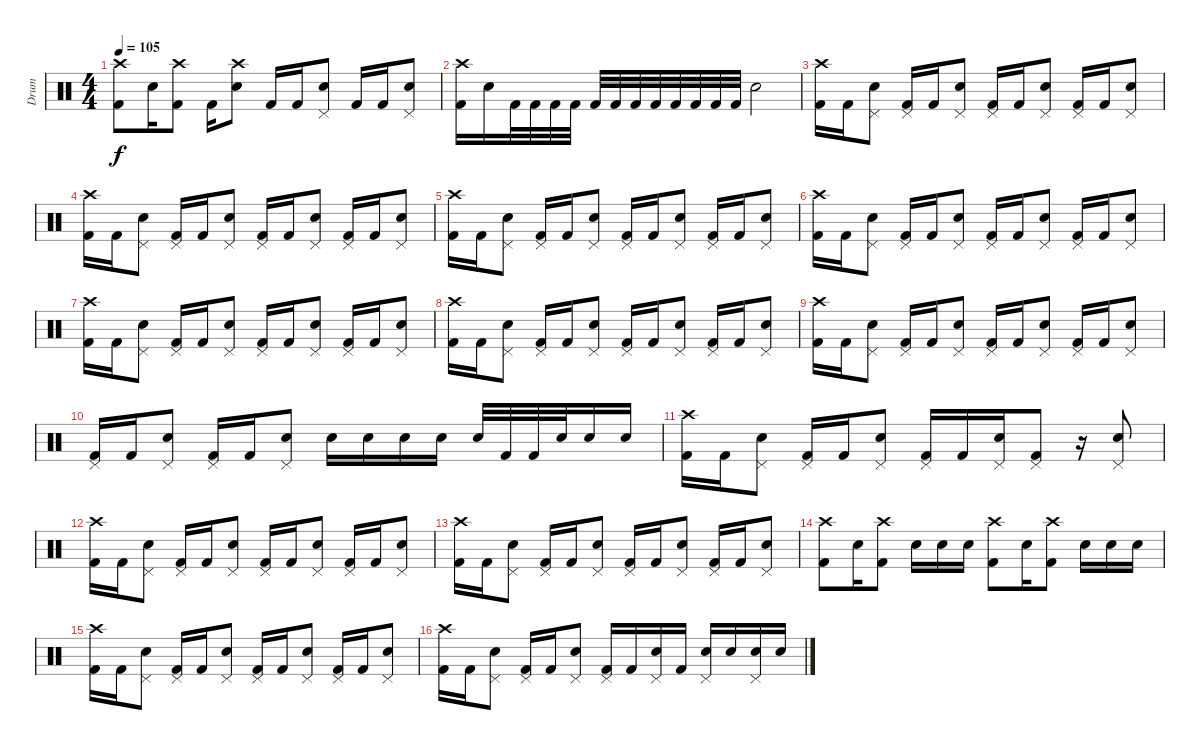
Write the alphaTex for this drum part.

\track ("Drum" "Drum") {instrument percussion}
\staff {score}
\articulation defaults
\ts (4 4)
\tempo 105
\clef neutral
\ks c
("Crash high (hit)" "Kick (hit) 2").8{dy f} "Snare (hit) 2".16 ("Crash high (hit)" "Kick (hit) 2").8 "Kick (hit) 2".16 ("Crash high (hit)" "Snare (hit) 2").8 "Kick (hit) 2".16 "Kick (hit) 2".16 ("Pedal Hi-Hat (hit)" "Snare (hit) 2").8 "Kick (hit) 2".16 "Kick (hit) 2".16 ("Pedal Hi-Hat (hit)" "Snare (hit) 2").8 |
("Crash high (hit)" "Kick (hit) 2").16 "Snare (hit) 2".16 "Kick (hit) 2".32 "Kick (hit) 2".32 "Kick (hit) 2".32 "Kick (hit) 2".32 "Kick (hit) 2".32 "Kick (hit) 2".32 "Kick (hit) 2".32 "Kick (hit) 2".32 "Kick (hit) 2".32 "Kick (hit) 2".32 "Kick (hit) 2".32 "Kick (hit) 2".32 "Snare (hit) 2".2 |
("Crash high (hit)" "Kick (hit) 2").16 "Kick (hit) 2".16 ("Pedal Hi-Hat (hit)" "Snare (hit) 2").8 ("Pedal Hi-Hat (hit)" "Kick (hit) 2").16 "Kick (hit) 2".16 ("Pedal Hi-Hat (hit)" "Snare (hit) 2").8 ("Pedal Hi-Hat (hit)" "Kick (hit) 2").16 "Kick (hit) 2".16 ("Pedal Hi-Hat (hit)" "Snare (hit) 2").8 ("Pedal Hi-Hat (hit)" "Kick (hit) 2").16 "Kick (hit) 2".16 ("Pedal Hi-Hat (hit)" "Snare (hit) 2").8 |
("Crash high (hit)" "Kick (hit) 2").16 "Kick (hit) 2".16 ("Pedal Hi-Hat (hit)" "Snare (hit) 2").8 ("Pedal Hi-Hat (hit)" "Kick (hit) 2").16 "Kick (hit) 2".16 ("Pedal Hi-Hat (hit)" "Snare (hit) 2").8 ("Pedal Hi-Hat (hit)" "Kick (hit) 2").16 "Kick (hit) 2".16 ("Pedal Hi-Hat (hit)" "Snare (hit) 2").8 ("Pedal Hi-Hat (hit)" "Kick (hit) 2").16 "Kick (hit) 2".16 ("Pedal Hi-Hat (hit)" "Snare (hit) 2").8 |
("Crash high (hit)" "Kick (hit) 2").16 "Kick (hit) 2".16 ("Pedal Hi-Hat (hit)" "Snare (hit) 2").8 ("Pedal Hi-Hat (hit)" "Kick (hit) 2").16 "Kick (hit) 2".16 ("Pedal Hi-Hat (hit)" "Snare (hit) 2").8 ("Pedal Hi-Hat (hit)" "Kick (hit) 2").16 "Kick (hit) 2".16 ("Pedal Hi-Hat (hit)" "Snare (hit) 2").8 ("Pedal Hi-Hat (hit)" "Kick (hit) 2").16 "Kick (hit) 2".16 ("Pedal Hi-Hat (hit)" "Snare (hit) 2").8 |
("Crash high (hit)" "Kick (hit) 2").16 "Kick (hit) 2".16 ("Pedal Hi-Hat (hit)" "Snare (hit) 2").8 ("Pedal Hi-Hat (hit)" "Kick (hit) 2").16 "Kick (hit) 2".16 ("Pedal Hi-Hat (hit)" "Snare (hit) 2").8 ("Pedal Hi-Hat (hit)" "Kick (hit) 2").16 "Kick (hit) 2".16 ("Pedal Hi-Hat (hit)" "Snare (hit) 2").8 ("Pedal Hi-Hat (hit)" "Kick (hit) 2").16 "Kick (hit) 2".16 ("Pedal Hi-Hat (hit)" "Snare (hit) 2").8 |
("Crash high (hit)" "Kick (hit) 2").16 "Kick (hit) 2".16 ("Pedal Hi-Hat (hit)" "Snare (hit) 2").8 ("Pedal Hi-Hat (hit)" "Kick (hit) 2").16 "Kick (hit) 2".16 ("Pedal Hi-Hat (hit)" "Snare (hit) 2").8 ("Pedal Hi-Hat (hit)" "Kick (hit) 2").16 "Kick (hit) 2".16 ("Pedal Hi-Hat (hit)" "Snare (hit) 2").8 ("Pedal Hi-Hat (hit)" "Kick (hit) 2").16 "Kick (hit) 2".16 ("Pedal Hi-Hat (hit)" "Snare (hit) 2").8 |
("Crash high (hit)" "Kick (hit) 2").16 "Kick (hit) 2".16 ("Pedal Hi-Hat (hit)" "Snare (hit) 2").8 ("Pedal Hi-Hat (hit)" "Kick (hit) 2").16 "Kick (hit) 2".16 ("Pedal Hi-Hat (hit)" "Snare (hit) 2").8 ("Pedal Hi-Hat (hit)" "Kick (hit) 2").16 "Kick (hit) 2".16 ("Pedal Hi-Hat (hit)" "Snare (hit) 2").8 ("Pedal Hi-Hat (hit)" "Kick (hit) 2").16 "Kick (hit) 2".16 ("Pedal Hi-Hat (hit)" "Snare (hit) 2").8 |
("Crash high (hit)" "Kick (hit) 2").16 "Kick (hit) 2".16 ("Pedal Hi-Hat (hit)" "Snare (hit) 2").8 ("Pedal Hi-Hat (hit)" "Kick (hit) 2").16 "Kick (hit) 2".16 ("Pedal Hi-Hat (hit)" "Snare (hit) 2").8 ("Pedal Hi-Hat (hit)" "Kick (hit) 2").16 "Kick (hit) 2".16 ("Pedal Hi-Hat (hit)" "Snare (hit) 2").8 ("Pedal Hi-Hat (hit)" "Kick (hit) 2").16 "Kick (hit) 2".16 ("Pedal Hi-Hat (hit)" "Snare (hit) 2").8 |
("Pedal Hi-Hat (hit)" "Kick (hit) 2").16 "Kick (hit) 2".16 ("Pedal Hi-Hat (hit)" "Snare (hit) 2").8 ("Pedal Hi-Hat (hit)" "Kick (hit) 2").16 "Kick (hit) 2".16 ("Pedal Hi-Hat (hit)" "Snare (hit) 2").8 "Snare (hit) 2".16 "Snare (hit) 2".16 "Snare (hit) 2".16 "Snare (hit) 2".16 "Snare (hit) 2".32 "Kick (hit) 2".32 "Kick (hit) 2".32 "Snare (hit) 2".32 "Snare (hit) 2".16 "Snare (hit) 2".16 |
("Crash high (hit)" "Kick (hit) 2").16 "Kick (hit) 2".16 ("Pedal Hi-Hat (hit)" "Snare (hit) 2").8 ("Pedal Hi-Hat (hit)" "Kick (hit) 2").16 "Kick (hit) 2".16 ("Pedal Hi-Hat (hit)" "Snare (hit) 2").8 ("Pedal Hi-Hat (hit)" "Kick (hit) 2").16 "Kick (hit) 2".16 ("Pedal Hi-Hat (hit)" "Snare (hit) 2").16 ("Pedal Hi-Hat (hit)" "Kick (hit) 2").8 r.16 ("Pedal Hi-Hat (hit)" "Snare (hit) 2").8 |
("Crash high (hit)" "Kick (hit) 2").16 "Kick (hit) 2".16 ("Pedal Hi-Hat (hit)" "Snare (hit) 2").8 ("Pedal Hi-Hat (hit)" "Kick (hit) 2").16 "Kick (hit) 2".16 ("Pedal Hi-Hat (hit)" "Snare (hit) 2").8 ("Pedal Hi-Hat (hit)" "Kick (hit) 2").16 "Kick (hit) 2".16 ("Pedal Hi-Hat (hit)" "Snare (hit) 2").8 ("Pedal Hi-Hat (hit)" "Kick (hit) 2").16 "Kick (hit) 2".16 ("Pedal Hi-Hat (hit)" "Snare (hit) 2").8 |
("Crash high (hit)" "Kick (hit) 2").16 "Kick (hit) 2".16 ("Pedal Hi-Hat (hit)" "Snare (hit) 2").8 ("Pedal Hi-Hat (hit)" "Kick (hit) 2").16 "Kick (hit) 2".16 ("Pedal Hi-Hat (hit)" "Snare (hit) 2").8 ("Pedal Hi-Hat (hit)" "Kick (hit) 2").16 "Kick (hit) 2".16 ("Pedal Hi-Hat (hit)" "Snare (hit) 2").8 ("Pedal Hi-Hat (hit)" "Kick (hit) 2").16 "Kick (hit) 2".16 ("Pedal Hi-Hat (hit)" "Snare (hit) 2").8 |
("Crash high (hit)" "Kick (hit) 2").8 "Snare (hit) 2".16 ("Crash high (hit)" "Kick (hit) 2").8 "Snare (hit) 2".16 "Snare (hit) 2".16 "Snare (hit) 2".16 ("Crash high (hit)" "Kick (hit) 2").8 "Snare (hit) 2".16 ("Crash high (hit)" "Kick (hit) 2").8 "Snare (hit) 2".16 "Snare (hit) 2".16 "Snare (hit) 2".16 |
("Crash high (hit)" "Kick (hit) 2").16 "Kick (hit) 2".16 ("Pedal Hi-Hat (hit)" "Snare (hit) 2").8 ("Pedal Hi-Hat (hit)" "Kick (hit) 2").16 "Kick (hit) 2".16 ("Pedal Hi-Hat (hit)" "Snare (hit) 2").8 ("Pedal Hi-Hat (hit)" "Kick (hit) 2").16 "Kick (hit) 2".16 ("Pedal Hi-Hat (hit)" "Snare (hit) 2").8 ("Pedal Hi-Hat (hit)" "Kick (hit) 2").16 "Kick (hit) 2".16 ("Pedal Hi-Hat (hit)" "Snare (hit) 2").8 |
("Crash high (hit)" "Kick (hit) 2").16 "Kick (hit) 2".16 ("Pedal Hi-Hat (hit)" "Snare (hit) 2").8 ("Pedal Hi-Hat (hit)" "Kick (hit) 2").16 "Kick (hit) 2".16 ("Pedal Hi-Hat (hit)" "Snare (hit) 2").8 ("Pedal Hi-Hat (hit)" "Kick (hit) 2").16 "Kick (hit) 2".16 ("Pedal Hi-Hat (hit)" "Snare (hit) 2").16 "Kick (hit) 2".16 ("Pedal Hi-Hat (hit)" "Snare (hit) 2").16 "Snare (hit) 2".16 ("Pedal Hi-Hat (hit)" "Snare (hit) 2").16 "Snare (hit) 2".16
